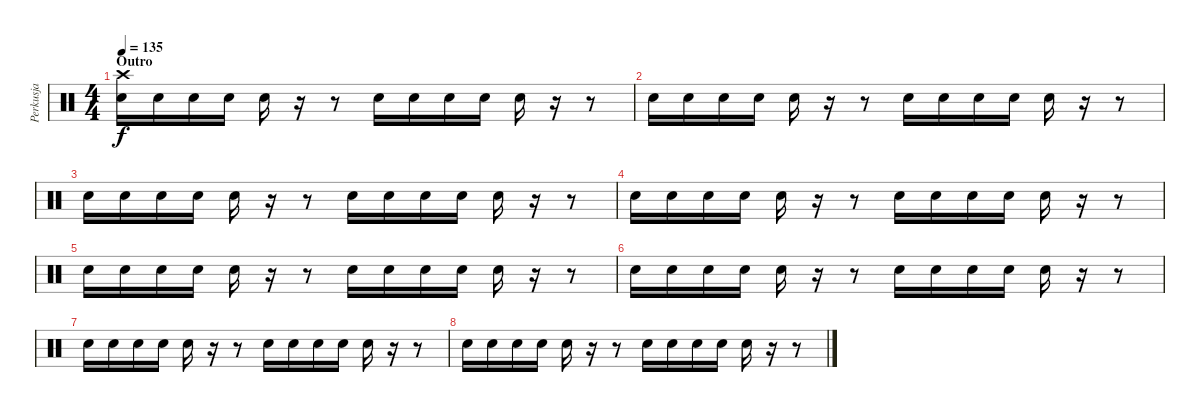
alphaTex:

\track ("Perkusja" "Perkusja") {instrument percussion}
\staff {score}
\articulation defaults
\ts (4 4)
\section ("" "Outro")
\tempo 135
\clef neutral
\ks c
("Electric Snare (hit)" "Crash high (hit)").16{dy f} "Electric Snare (hit)".16 "Electric Snare (hit)".16 "Electric Snare (hit)".16 "Electric Snare (hit)".16 r.16 r.8 "Electric Snare (hit)".16 "Electric Snare (hit)".16 "Electric Snare (hit)".16 "Electric Snare (hit)".16 "Electric Snare (hit)".16 r.16 r.8 |
"Electric Snare (hit)".16 "Electric Snare (hit)".16 "Electric Snare (hit)".16 "Electric Snare (hit)".16 "Electric Snare (hit)".16 r.16 r.8 "Electric Snare (hit)".16 "Electric Snare (hit)".16 "Electric Snare (hit)".16 "Electric Snare (hit)".16 "Electric Snare (hit)".16 r.16 r.8 |
"Electric Snare (hit)".16 "Electric Snare (hit)".16 "Electric Snare (hit)".16 "Electric Snare (hit)".16 "Electric Snare (hit)".16 r.16 r.8 "Electric Snare (hit)".16 "Electric Snare (hit)".16 "Electric Snare (hit)".16 "Electric Snare (hit)".16 "Electric Snare (hit)".16 r.16 r.8 |
"Electric Snare (hit)".16 "Electric Snare (hit)".16 "Electric Snare (hit)".16 "Electric Snare (hit)".16 "Electric Snare (hit)".16 r.16 r.8 "Electric Snare (hit)".16 "Electric Snare (hit)".16 "Electric Snare (hit)".16 "Electric Snare (hit)".16 "Electric Snare (hit)".16 r.16 r.8 |
"Electric Snare (hit)".16 "Electric Snare (hit)".16 "Electric Snare (hit)".16 "Electric Snare (hit)".16 "Electric Snare (hit)".16 r.16 r.8 "Electric Snare (hit)".16 "Electric Snare (hit)".16 "Electric Snare (hit)".16 "Electric Snare (hit)".16 "Electric Snare (hit)".16 r.16 r.8 |
"Electric Snare (hit)".16 "Electric Snare (hit)".16 "Electric Snare (hit)".16 "Electric Snare (hit)".16 "Electric Snare (hit)".16 r.16 r.8 "Electric Snare (hit)".16 "Electric Snare (hit)".16 "Electric Snare (hit)".16 "Electric Snare (hit)".16 "Electric Snare (hit)".16 r.16 r.8 |
"Electric Snare (hit)".16 "Electric Snare (hit)".16 "Electric Snare (hit)".16 "Electric Snare (hit)".16 "Electric Snare (hit)".16 r.16 r.8 "Electric Snare (hit)".16 "Electric Snare (hit)".16 "Electric Snare (hit)".16 "Electric Snare (hit)".16 "Electric Snare (hit)".16 r.16 r.8 |
"Electric Snare (hit)".16 "Electric Snare (hit)".16 "Electric Snare (hit)".16 "Electric Snare (hit)".16 "Electric Snare (hit)".16 r.16 r.8 "Electric Snare (hit)".16 "Electric Snare (hit)".16 "Electric Snare (hit)".16 "Electric Snare (hit)".16 "Electric Snare (hit)".16 r.16 r.8
